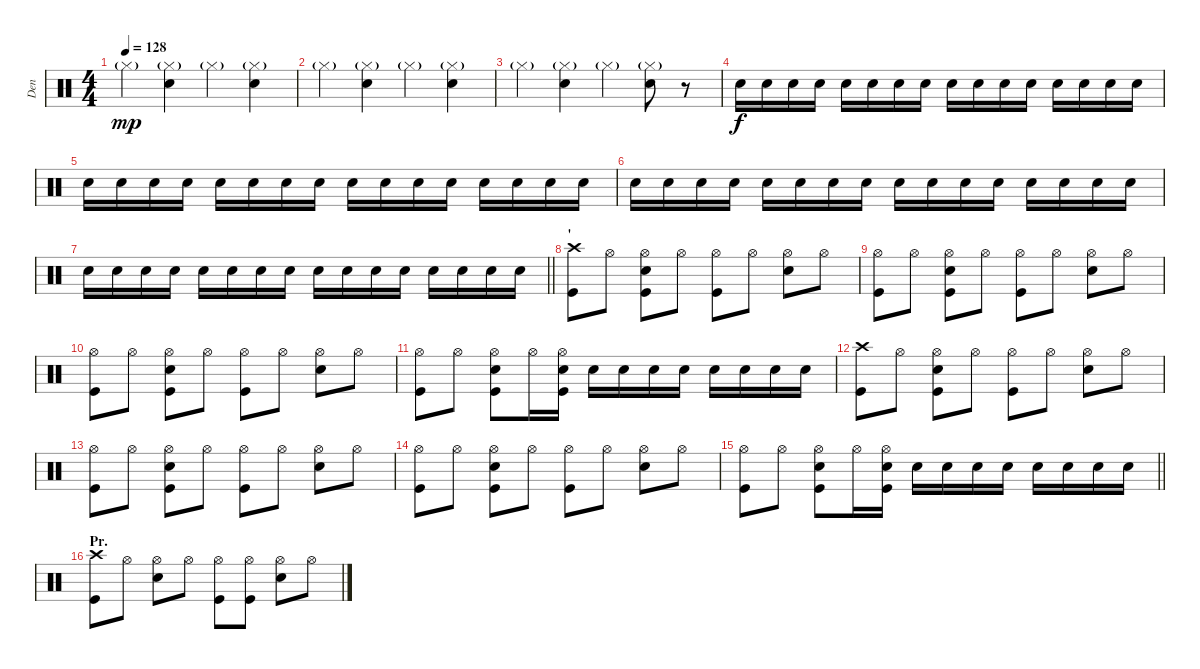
\track ("Den" "Den") {instrument percussion}
\staff
\articulation defaults
\ts (4 4)
\tempo 128
\clef neutral
\ks c "Hi-Hat (closed)"{g}.4{dy mp}
("Hi-Hat (closed)"{g} "Snare (hit) 2").4 "Hi-Hat (closed)"{g}.4 ("Hi-Hat (closed)"{g} "Snare (hit) 2").4 |
"Hi-Hat (closed)"{g}.4 ("Hi-Hat (closed)"{g} "Snare (hit) 2").4 "Hi-Hat (closed)"{g}.4 ("Hi-Hat (closed)"{g} "Snare (hit) 2").4 |
"Hi-Hat (closed)"{g}.4 ("Hi-Hat (closed)"{g} "Snare (hit) 2").4 "Hi-Hat (closed)"{g}.4 ("Hi-Hat (closed)"{g} "Snare (hit) 2").8 r.8{volume 7} |
"Snare (hit) 2".16{dy f volume 13} "Snare (hit) 2".16 "Snare (hit) 2".16 "Snare (hit) 2".16 "Snare (hit) 2".16 "Snare (hit) 2".16 "Snare (hit) 2".16 "Snare (hit) 2".16 "Snare (hit) 2".16 "Snare (hit) 2".16 "Snare (hit) 2".16 "Snare (hit) 2".16 "Snare (hit) 2".16 "Snare (hit) 2".16 "Snare (hit) 2".16 "Snare (hit) 2".16 |
"Snare (hit) 2".16 "Snare (hit) 2".16 "Snare (hit) 2".16 "Snare (hit) 2".16 "Snare (hit) 2".16 "Snare (hit) 2".16 "Snare (hit) 2".16 "Snare (hit) 2".16 "Snare (hit) 2".16 "Snare (hit) 2".16 "Snare (hit) 2".16 "Snare (hit) 2".16 "Snare (hit) 2".16 "Snare (hit) 2".16 "Snare (hit) 2".16 "Snare (hit) 2".16 |
"Snare (hit) 2".16 "Snare (hit) 2".16 "Snare (hit) 2".16 "Snare (hit) 2".16 "Snare (hit) 2".16 "Snare (hit) 2".16 "Snare (hit) 2".16 "Snare (hit) 2".16 "Snare (hit) 2".16 "Snare (hit) 2".16 "Snare (hit) 2".16 "Snare (hit) 2".16 "Snare (hit) 2".16 "Snare (hit) 2".16 "Snare (hit) 2".16 "Snare (hit) 2".16 |
\barLineRight lightlight "Snare (hit) 2".16 "Snare (hit) 2".16 "Snare (hit) 2".16 "Snare (hit) 2".16 "Snare (hit) 2".16 "Snare (hit) 2".16 "Snare (hit) 2".16 "Snare (hit) 2".16 "Snare (hit) 2".16 "Snare (hit) 2".16 "Snare (hit) 2".16 "Snare (hit) 2".16 "Snare (hit) 2".16 "Snare (hit) 2".16 "Snare (hit) 2".16 "Snare (hit) 2".16
|
\section ("" "'")
("Crash high (hit)" "Kick (hit)").8 "Hi-Hat (open)".8 ("Hi-Hat (open)" "Snare (hit) 2" "Kick (hit)").8 "Hi-Hat (open)".8 ("Hi-Hat (open)" "Kick (hit)").8 "Hi-Hat (open)".8 ("Hi-Hat (open)" "Snare (hit) 2").8 "Hi-Hat (open)".8 |
("Hi-Hat (open)" "Kick (hit)").8 "Hi-Hat (open)".8 ("Hi-Hat (open)" "Snare (hit) 2" "Kick (hit)").8 "Hi-Hat (open)".8 ("Hi-Hat (open)" "Kick (hit)").8 "Hi-Hat (open)".8 ("Hi-Hat (open)" "Snare (hit) 2").8 "Hi-Hat (open)".8 |
("Hi-Hat (open)" "Kick (hit)").8 "Hi-Hat (open)".8 ("Hi-Hat (open)" "Snare (hit) 2" "Kick (hit)").8 "Hi-Hat (open)".8 ("Hi-Hat (open)" "Kick (hit)").8 "Hi-Hat (open)".8 ("Hi-Hat (open)" "Snare (hit) 2").8 "Hi-Hat (open)".8 |
("Hi-Hat (open)" "Kick (hit)").8 "Hi-Hat (open)".8 ("Hi-Hat (open)" "Snare (hit) 2" "Kick (hit)").8 "Hi-Hat (open)".16 ("Snare (hit) 2" "Kick (hit)" "Hi-Hat (open)").16 "Snare (hit) 2".16 "Snare (hit) 2".16 "Snare (hit) 2".16 "Snare (hit) 2".16 "Snare (hit) 2".16 "Snare (hit) 2".16 "Snare (hit) 2".16 "Snare (hit) 2".16 |
("Crash high (hit)" "Kick (hit)").8 "Hi-Hat (open)".8 ("Hi-Hat (open)" "Snare (hit) 2" "Kick (hit)").8 "Hi-Hat (open)".8 ("Hi-Hat (open)" "Kick (hit)").8 "Hi-Hat (open)".8 ("Hi-Hat (open)" "Snare (hit) 2").8 "Hi-Hat (open)".8 |
("Hi-Hat (open)" "Kick (hit)").8 "Hi-Hat (open)".8 ("Hi-Hat (open)" "Snare (hit) 2" "Kick (hit)").8 "Hi-Hat (open)".8 ("Hi-Hat (open)" "Kick (hit)").8 "Hi-Hat (open)".8 ("Hi-Hat (open)" "Snare (hit) 2").8 "Hi-Hat (open)".8 |
("Hi-Hat (open)" "Kick (hit)").8 "Hi-Hat (open)".8 ("Hi-Hat (open)" "Snare (hit) 2" "Kick (hit)").8 "Hi-Hat (open)".8 ("Hi-Hat (open)" "Kick (hit)").8 "Hi-Hat (open)".8 ("Hi-Hat (open)" "Snare (hit) 2").8 "Hi-Hat (open)".8 |
\barLineRight lightlight
("Hi-Hat (open)" "Kick (hit)").8 "Hi-Hat (open)".8 ("Hi-Hat (open)" "Snare (hit) 2" "Kick (hit)").8 "Hi-Hat (open)".16 ("Snare (hit) 2" "Kick (hit)" "Hi-Hat (open)").16 "Snare (hit) 2".16 "Snare (hit) 2".16 "Snare (hit) 2".16 "Snare (hit) 2".16 "Snare (hit) 2".16 "Snare (hit) 2".16 "Snare (hit) 2".16 "Snare (hit) 2".16 |
\section ("" "Pr.")
("Crash high (hit)" "Kick (hit)").8 "Hi-Hat (open)".8 ("Hi-Hat (open)" "Snare (hit) 2").8 "Hi-Hat (open)".8 ("Hi-Hat (open)" "Kick (hit)").8 ("Hi-Hat (open)" "Kick (hit)").8 ("Hi-Hat (open)" "Snare (hit) 2").8 "Hi-Hat (open)".8
